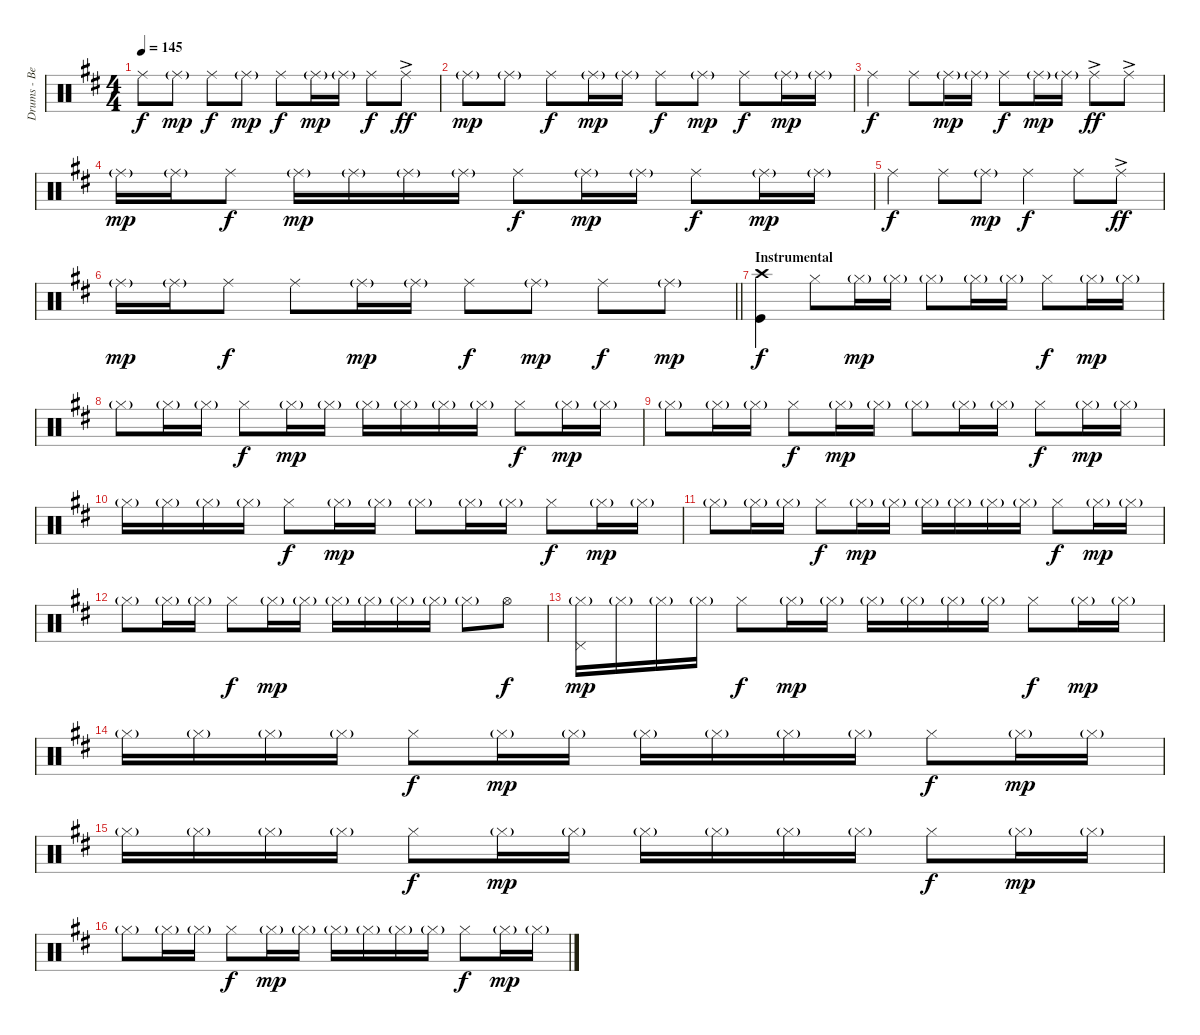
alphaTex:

\track ("Drums - Ben Johnston" "Drums - Be") {instrument percussion}
\staff {score}
\articulation defaults
\ts (4 4)
\tempo 145
\clef neutral
\ks d "Ride (middle)".8{dy f} "Ride (middle)"{g}.8{dy mp} "Ride (middle)".8{dy f} "Ride (middle)"{g}.8{dy mp} "Ride (middle)".8{dy f} "Ride (middle)"{g}.16{dy mp} "Ride (middle)"{g}.16 "Ride (middle)".8{dy f} "Ride (middle)"{ac}.8{dy ff}
|
"Ride (middle)"{g}.8{dy mp} "Ride (middle)"{g}.8 "Ride (middle)".8{dy f} "Ride (middle)"{g}.16{dy mp} "Ride (middle)"{g}.16 "Ride (middle)".8{dy f} "Ride (middle)"{g}.8{dy mp} "Ride (middle)".8{dy f} "Ride (middle)"{g}.16{dy mp} "Ride (middle)"{g}.16 |
"Ride (middle)".4{dy f} "Ride (middle)".8 "Ride (middle)"{g}.16{dy mp} "Ride (middle)"{g}.16 "Ride (middle)".8{dy f} "Ride (middle)"{g}.16{dy mp} "Ride (middle)"{g}.16 "Ride (middle)"{ac}.8{dy ff} "Ride (middle)"{ac}.8 |
"Ride (middle)"{g}.16{dy mp} "Ride (middle)"{g}.16 "Ride (middle)".8{dy f} "Ride (middle)"{g}.16{dy mp} "Ride (middle)"{g}.16 "Ride (middle)"{g}.16 "Ride (middle)"{g}.16 "Ride (middle)".8{dy f} "Ride (middle)"{g}.16{dy mp} "Ride (middle)"{g}.16 "Ride (middle)".8{dy f} "Ride (middle)"{g}.16{dy mp} "Ride (middle)"{g}.16 |
"Ride (middle)".4{dy f} "Ride (middle)".8 "Ride (middle)"{g}.8{dy mp} "Ride (middle)".4{dy f} "Ride (middle)".8 "Ride (middle)"{ac}.8{dy ff} |
\barLineRight lightlight "Ride (middle)"{g}.16{dy mp} "Ride (middle)"{g}.16 "Ride (middle)".8{dy f} "Ride (middle)".8 "Ride (middle)"{g}.16{dy mp} "Ride (middle)"{g}.16 "Ride (middle)".8{dy f} "Ride (middle)"{g}.8{dy mp} "Ride (middle)".8{dy f} "Ride (middle)"{g}.8{dy mp}
|
\section ("" "Instrumental")
("Crash high (hit)" "Kick (hit)").4{dy f} "Hi-Hat (closed)".8 "Hi-Hat (closed)"{g}.16{dy mp} "Hi-Hat (closed)"{g}.16 "Hi-Hat (closed)"{g}.8 "Hi-Hat (closed)"{g}.16 "Hi-Hat (closed)"{g}.16 "Hi-Hat (closed)".8{dy f} "Hi-Hat (closed)"{g}.16{dy mp} "Hi-Hat (closed)"{g}.16 |
"Hi-Hat (closed)"{g}.8 "Hi-Hat (closed)"{g}.16 "Hi-Hat (closed)"{g}.16 "Hi-Hat (closed)".8{dy f} "Hi-Hat (closed)"{g}.16{dy mp} "Hi-Hat (closed)"{g}.16 "Hi-Hat (closed)"{g}.16 "Hi-Hat (closed)"{g}.16 "Hi-Hat (closed)"{g}.16 "Hi-Hat (closed)"{g}.16 "Hi-Hat (closed)".8{dy f} "Hi-Hat (closed)"{g}.16{dy mp} "Hi-Hat (closed)"{g}.16 |
"Hi-Hat (closed)"{g}.8 "Hi-Hat (closed)"{g}.16 "Hi-Hat (closed)"{g}.16 "Hi-Hat (closed)".8{dy f} "Hi-Hat (closed)"{g}.16{dy mp} "Hi-Hat (closed)"{g}.16 "Hi-Hat (closed)"{g}.8 "Hi-Hat (closed)"{g}.16 "Hi-Hat (closed)"{g}.16 "Hi-Hat (closed)".8{dy f} "Hi-Hat (closed)"{g}.16{dy mp} "Hi-Hat (closed)"{g}.16 |
"Hi-Hat (closed)"{g}.16 "Hi-Hat (closed)"{g}.16 "Hi-Hat (closed)"{g}.16 "Hi-Hat (closed)"{g}.16 "Hi-Hat (closed)".8{dy f} "Hi-Hat (closed)"{g}.16{dy mp} "Hi-Hat (closed)"{g}.16 "Hi-Hat (closed)"{g}.8 "Hi-Hat (closed)"{g}.16 "Hi-Hat (closed)"{g}.16 "Hi-Hat (closed)".8{dy f} "Hi-Hat (closed)"{g}.16{dy mp} "Hi-Hat (closed)"{g}.16 |
"Hi-Hat (closed)"{g}.8 "Hi-Hat (closed)"{g}.16 "Hi-Hat (closed)"{g}.16 "Hi-Hat (closed)".8{dy f} "Hi-Hat (closed)"{g}.16{dy mp} "Hi-Hat (closed)"{g}.16 "Hi-Hat (closed)"{g}.16 "Hi-Hat (closed)"{g}.16 "Hi-Hat (closed)"{g}.16 "Hi-Hat (closed)"{g}.16 "Hi-Hat (closed)".8{dy f} "Hi-Hat (closed)"{g}.16{dy mp} "Hi-Hat (closed)"{g}.16 |
"Hi-Hat (closed)"{g}.8 "Hi-Hat (closed)"{g}.16 "Hi-Hat (closed)"{g}.16 "Hi-Hat (closed)".8{dy f} "Hi-Hat (closed)"{g}.16{dy mp} "Hi-Hat (closed)"{g}.16 "Hi-Hat (closed)"{g}.16 "Hi-Hat (closed)"{g}.16 "Hi-Hat (closed)"{g}.16 "Hi-Hat (closed)"{g}.16 "Hi-Hat (closed)"{g}.8 "Hi-Hat (open)".8{dy f} |
("Hi-Hat (closed)"{g} "Pedal Hi-Hat (hit)").16{dy mp} "Hi-Hat (closed)"{g}.16 "Hi-Hat (closed)"{g}.16 "Hi-Hat (closed)"{g}.16 "Hi-Hat (closed)".8{dy f} "Hi-Hat (closed)"{g}.16{dy mp} "Hi-Hat (closed)"{g}.16 "Hi-Hat (closed)"{g}.16 "Hi-Hat (closed)"{g}.16 "Hi-Hat (closed)"{g}.16 "Hi-Hat (closed)"{g}.16 "Hi-Hat (closed)".8{dy f} "Hi-Hat (closed)"{g}.16{dy mp} "Hi-Hat (closed)"{g}.16 |
"Hi-Hat (closed)"{g}.16 "Hi-Hat (closed)"{g}.16 "Hi-Hat (closed)"{g}.16 "Hi-Hat (closed)"{g}.16 "Hi-Hat (closed)".8{dy f} "Hi-Hat (closed)"{g}.16{dy mp} "Hi-Hat (closed)"{g}.16 "Hi-Hat (closed)"{g}.16 "Hi-Hat (closed)"{g}.16 "Hi-Hat (closed)"{g}.16 "Hi-Hat (closed)"{g}.16 "Hi-Hat (closed)".8{dy f} "Hi-Hat (closed)"{g}.16{dy mp} "Hi-Hat (closed)"{g}.16 |
"Hi-Hat (closed)"{g}.16 "Hi-Hat (closed)"{g}.16 "Hi-Hat (closed)"{g}.16 "Hi-Hat (closed)"{g}.16 "Hi-Hat (closed)".8{dy f} "Hi-Hat (closed)"{g}.16{dy mp} "Hi-Hat (closed)"{g}.16 "Hi-Hat (closed)"{g}.16 "Hi-Hat (closed)"{g}.16 "Hi-Hat (closed)"{g}.16 "Hi-Hat (closed)"{g}.16 "Hi-Hat (closed)".8{dy f} "Hi-Hat (closed)"{g}.16{dy mp} "Hi-Hat (closed)"{g}.16 |
"Hi-Hat (closed)"{g}.8 "Hi-Hat (closed)"{g}.16 "Hi-Hat (closed)"{g}.16 "Hi-Hat (closed)".8{dy f} "Hi-Hat (closed)"{g}.16{dy mp} "Hi-Hat (closed)"{g}.16 "Hi-Hat (closed)"{g}.16 "Hi-Hat (closed)"{g}.16 "Hi-Hat (closed)"{g}.16 "Hi-Hat (closed)"{g}.16 "Hi-Hat (closed)".8{dy f} "Hi-Hat (closed)"{g}.16{dy mp} "Hi-Hat (closed)"{g}.16
